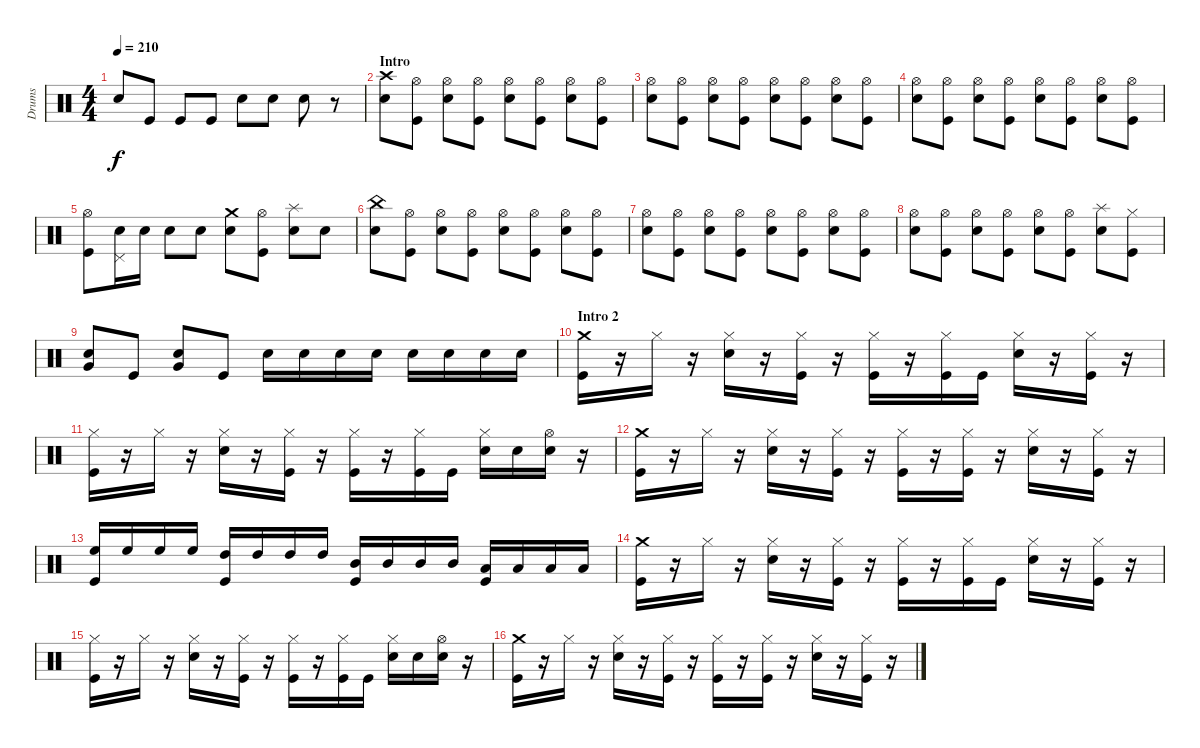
\track ("Drums" "Drums") {instrument percussion}
\staff {score}
\articulation defaults
\ts (4 4)
\tempo 210
\clef neutral
\ks c "Electric Snare (hit)".8{dy f} "Kick (hit)".8 "Kick (hit)".8 "Kick (hit)".8 "Electric Snare (hit)".8 "Electric Snare (hit)".8 "Electric Snare (hit)".8
r.8 |
\section ("" "Intro")
("Crash high (hit)" "Electric Snare (hit)").8 ("Hi-Hat (open)" "Kick (hit)").8 ("Hi-Hat (open)" "Electric Snare (hit)").8 ("Hi-Hat (open)" "Kick (hit)").8 ("Hi-Hat (open)" "Electric Snare (hit)").8 ("Hi-Hat (open)" "Kick (hit)").8 ("Hi-Hat (open)" "Electric Snare (hit)").8 ("Hi-Hat (open)" "Kick (hit)").8 |
("Hi-Hat (open)" "Electric Snare (hit)").8 ("Hi-Hat (open)" "Kick (hit)").8 ("Hi-Hat (open)" "Electric Snare (hit)").8 ("Hi-Hat (open)" "Kick (hit)").8 ("Hi-Hat (open)" "Electric Snare (hit)").8 ("Hi-Hat (open)" "Kick (hit)").8 ("Hi-Hat (open)" "Electric Snare (hit)").8 ("Hi-Hat (open)" "Kick (hit)").8 |
("Hi-Hat (open)" "Electric Snare (hit)").8 ("Hi-Hat (open)" "Kick (hit)").8 ("Hi-Hat (open)" "Electric Snare (hit)").8 ("Hi-Hat (open)" "Kick (hit)").8 ("Hi-Hat (open)" "Electric Snare (hit)").8 ("Hi-Hat (open)" "Kick (hit)").8 ("Hi-Hat (open)" "Electric Snare (hit)").8 ("Hi-Hat (open)" "Kick (hit)").8 |
("Hi-Hat (open)" "Kick (hit)").8 ("Pedal Hi-Hat (hit)" "Electric Snare (hit)").16 "Electric Snare (hit)".16 "Electric Snare (hit)".8 "Electric Snare (hit)".8 ("Crash medium (hit)" "Electric Snare (hit)").8 ("Hi-Hat (open)" "Kick (hit)").8 ("Splash (hit)" "Electric Snare (hit)").8 "Electric Snare (hit)".8 |
("China (hit)" "Electric Snare (hit)").8 ("Hi-Hat (open)" "Kick (hit)").8 ("Hi-Hat (open)" "Electric Snare (hit)").8 ("Hi-Hat (open)" "Kick (hit)").8 ("Hi-Hat (open)" "Electric Snare (hit)").8 ("Hi-Hat (open)" "Kick (hit)").8 ("Hi-Hat (open)" "Electric Snare (hit)").8 ("Hi-Hat (open)" "Kick (hit)").8 |
("Hi-Hat (open)" "Electric Snare (hit)").8 ("Hi-Hat (open)" "Kick (hit)").8 ("Hi-Hat (open)" "Electric Snare (hit)").8 ("Hi-Hat (open)" "Kick (hit)").8 ("Hi-Hat (open)" "Electric Snare (hit)").8 ("Hi-Hat (open)" "Kick (hit)").8 ("Hi-Hat (open)" "Electric Snare (hit)").8 ("Hi-Hat (open)" "Kick (hit)").8 |
("Hi-Hat (open)" "Electric Snare (hit)").8 ("Hi-Hat (open)" "Kick (hit)").8 ("Hi-Hat (open)" "Electric Snare (hit)").8 ("Hi-Hat (open)" "Kick (hit)").8 ("Hi-Hat (open)" "Electric Snare (hit)").8 ("Hi-Hat (open)" "Kick (hit)").8 ("Splash (hit)" "Electric Snare (hit)").8 ("Hi-Hat (closed)" "Kick (hit)").8 |
("Very Low Tom (hit)" "Electric Snare (hit)").8 "Kick (hit)".8 ("Very Low Tom (hit)" "Electric Snare (hit)").8 "Kick (hit)".8 "Electric Snare (hit)".16 "Electric Snare (hit)".16 "Electric Snare (hit)".16 "Electric Snare (hit)".16 "Electric Snare (hit)".16 "Electric Snare (hit)".16 "Electric Snare (hit)".16 "Electric Snare (hit)".16 |
\section ("" "Intro 2")
("Crash medium (hit)" "Kick (hit)").16 r.16 "Hi-Hat (closed)".16 r.16 ("Hi-Hat (closed)" "Electric Snare (hit)").16 r.16 ("Hi-Hat (closed)" "Kick (hit)").16 r.16 ("Hi-Hat (closed)" "Kick (hit)").16 r.16 ("Hi-Hat (closed)" "Kick (hit)").16 "Kick (hit)".16 ("Hi-Hat (closed)" "Electric Snare (hit)").16 r.16 ("Hi-Hat (closed)" "Kick (hit)").16 r.16 |
("Hi-Hat (closed)" "Kick (hit)").16 r.16 "Hi-Hat (closed)".16 r.16 ("Hi-Hat (closed)" "Electric Snare (hit)").16 r.16 ("Hi-Hat (closed)" "Kick (hit)").16 r.16 ("Hi-Hat (closed)" "Kick (hit)").16 r.16 ("Hi-Hat (closed)" "Kick (hit)").16 "Kick (hit)".16 ("Hi-Hat (closed)" "Electric Snare (hit)").16 "Electric Snare (hit)".16 ("Hi-Hat (open)" "Electric Snare (hit)").16 r.16 |
("Crash medium (hit)" "Kick (hit)").16 r.16 "Hi-Hat (closed)".16 r.16 ("Hi-Hat (closed)" "Electric Snare (hit)").16 r.16 ("Hi-Hat (closed)" "Kick (hit)").16 r.16 ("Hi-Hat (closed)" "Kick (hit)").16 r.16 ("Hi-Hat (closed)" "Kick (hit)").16 r.16 ("Hi-Hat (closed)" "Electric Snare (hit)").16 r.16 ("Hi-Hat (closed)" "Kick (hit)").16 r.16 |
("High Floor Tom (hit)" "Kick (hit)").16 "High Floor Tom (hit)".16 "High Floor Tom (hit)".16 "High Floor Tom (hit)".16 ("High Tom (hit)" "Kick (hit)").16 "High Tom (hit)".16 "High Tom (hit)".16 "High Tom (hit)".16 ("Mid Tom (hit)" "Kick (hit)").16 "Mid Tom (hit)".16 "Mid Tom (hit)".16 "Mid Tom (hit)".16 ("Low Tom (hit)" "Kick (hit)").16 "Low Tom (hit)".16 "Low Tom (hit)".16 "Low Tom (hit)".16 |
("Crash medium (hit)" "Kick (hit)").16 r.16 "Hi-Hat (closed)".16 r.16 ("Hi-Hat (closed)" "Electric Snare (hit)").16 r.16 ("Hi-Hat (closed)" "Kick (hit)").16 r.16 ("Hi-Hat (closed)" "Kick (hit)").16 r.16 ("Hi-Hat (closed)" "Kick (hit)").16 "Kick (hit)".16 ("Hi-Hat (closed)" "Electric Snare (hit)").16 r.16 ("Hi-Hat (closed)" "Kick (hit)").16 r.16 |
("Hi-Hat (closed)" "Kick (hit)").16 r.16 "Hi-Hat (closed)".16 r.16 ("Hi-Hat (closed)" "Electric Snare (hit)").16 r.16 ("Hi-Hat (closed)" "Kick (hit)").16 r.16 ("Hi-Hat (closed)" "Kick (hit)").16 r.16 ("Hi-Hat (closed)" "Kick (hit)").16 "Kick (hit)".16 ("Hi-Hat (closed)" "Electric Snare (hit)").16 "Electric Snare (hit)".16 ("Hi-Hat (open)" "Electric Snare (hit)").16 r.16 |
("Crash medium (hit)" "Kick (hit)").16 r.16 "Hi-Hat (closed)".16 r.16 ("Hi-Hat (closed)" "Electric Snare (hit)").16 r.16 ("Hi-Hat (closed)" "Kick (hit)").16 r.16 ("Hi-Hat (closed)" "Kick (hit)").16 r.16 ("Hi-Hat (closed)" "Kick (hit)").16 r.16 ("Hi-Hat (closed)" "Electric Snare (hit)").16 r.16 ("Hi-Hat (closed)" "Kick (hit)").16 r.16
